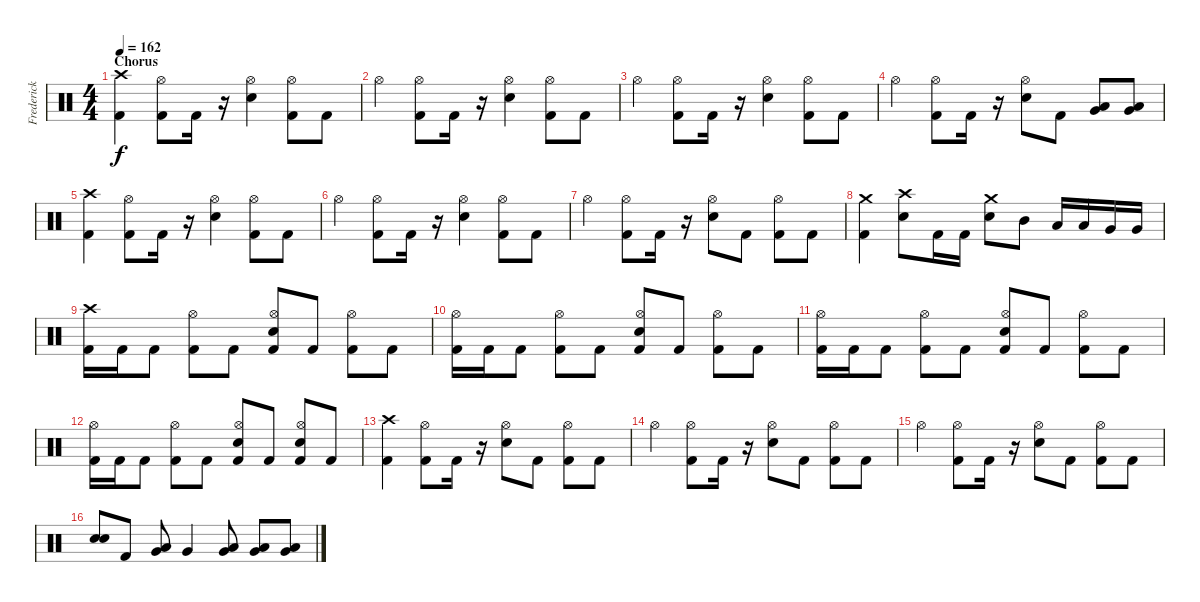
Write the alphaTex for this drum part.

\track ("Frederick Ehmke" "Frederick ") {instrument percussion}
\staff {score}
\articulation defaults
\ts (4 4)
\section ("" "Chorus")
\tempo 162
\clef neutral
\ks c
("Crash high (hit)" "Kick (hit) 2").4{dy f} ("Hi-Hat (open)" "Kick (hit) 2").8 "Kick (hit) 2".16 r.16 ("Electric Snare (hit)" "Hi-Hat (open)").4 ("Hi-Hat (open)" "Kick (hit) 2").8 "Kick (hit) 2".8 |
"Hi-Hat (open)".4 ("Hi-Hat (open)" "Kick (hit) 2").8 "Kick (hit) 2".16 r.16 ("Electric Snare (hit)" "Hi-Hat (open)").4 ("Hi-Hat (open)" "Kick (hit) 2").8 "Kick (hit) 2".8 |
"Hi-Hat (open)".4 ("Hi-Hat (open)" "Kick (hit) 2").8 "Kick (hit) 2".16 r.16 ("Electric Snare (hit)" "Hi-Hat (open)").4 ("Hi-Hat (open)" "Kick (hit) 2").8 "Kick (hit) 2".8 |
"Hi-Hat (open)".4 ("Hi-Hat (open)" "Kick (hit) 2").8 "Kick (hit) 2".16 r.16 ("Electric Snare (hit)" "Hi-Hat (open)").8 "Kick (hit) 2".8 ("Very Low Tom (hit)" "Low Floor Tom (hit)").8 ("Very Low Tom (hit)" "Low Floor Tom (hit)").8 |
("Crash high (hit)" "Kick (hit) 2").4 ("Hi-Hat (open)" "Kick (hit) 2").8 "Kick (hit) 2".16 r.16 ("Electric Snare (hit)" "Hi-Hat (open)").4 ("Hi-Hat (open)" "Kick (hit) 2").8 "Kick (hit) 2".8 |
"Hi-Hat (open)".4 ("Hi-Hat (open)" "Kick (hit) 2").8 "Kick (hit) 2".16 r.16 ("Electric Snare (hit)" "Hi-Hat (open)").4 ("Hi-Hat (open)" "Kick (hit) 2").8 "Kick (hit) 2".8 |
"Hi-Hat (open)".4 ("Hi-Hat (open)" "Kick (hit) 2").8 "Kick (hit) 2".16 r.16 ("Electric Snare (hit)" "Hi-Hat (open)").8 "Kick (hit) 2".8 ("Hi-Hat (open)" "Kick (hit) 2").8 "Kick (hit) 2".8 |
("Crash medium (hit)" "Kick (hit) 2").4 ("Electric Snare (hit)" "Crash high (hit)").8 "Kick (hit) 2".16 "Kick (hit) 2".16 ("Electric Snare (hit)" "Crash medium (hit)").8 "Mid Tom (hit)".8 "Low Tom (hit)".16 "Low Tom (hit)".16 "Very Low Tom (hit)".16 "Very Low Tom (hit)".16 |
("Crash high (hit)" "Kick (hit) 2").16 "Kick (hit) 2".16 "Kick (hit) 2".8 ("Hi-Hat (open)" "Kick (hit) 2").8 "Kick (hit) 2".8 ("Electric Snare (hit)" "Hi-Hat (open)" "Kick (hit) 2").8 "Kick (hit) 2".8 ("Hi-Hat (open)" "Kick (hit) 2").8 "Kick (hit) 2".8 |
("Hi-Hat (open)" "Kick (hit) 2").16 "Kick (hit) 2".16 "Kick (hit) 2".8 ("Hi-Hat (open)" "Kick (hit) 2").8 "Kick (hit) 2".8 ("Electric Snare (hit)" "Hi-Hat (open)" "Kick (hit) 2").8 "Kick (hit) 2".8 ("Hi-Hat (open)" "Kick (hit) 2").8 "Kick (hit) 2".8 |
("Hi-Hat (open)" "Kick (hit) 2").16 "Kick (hit) 2".16 "Kick (hit) 2".8 ("Hi-Hat (open)" "Kick (hit) 2").8 "Kick (hit) 2".8 ("Electric Snare (hit)" "Hi-Hat (open)" "Kick (hit) 2").8 "Kick (hit) 2".8 ("Hi-Hat (open)" "Kick (hit) 2").8 "Kick (hit) 2".8 |
("Hi-Hat (open)" "Kick (hit) 2").16 "Kick (hit) 2".16 "Kick (hit) 2".8 ("Hi-Hat (open)" "Kick (hit) 2").8 "Kick (hit) 2".8 ("Electric Snare (hit)" "Hi-Hat (open)" "Kick (hit) 2").8 "Kick (hit) 2".8 ("Electric Snare (hit)" "Hi-Hat (open)" "Kick (hit) 2").8 "Kick (hit) 2".8 |
("Crash high (hit)" "Kick (hit) 2").4 ("Hi-Hat (open)" "Kick (hit) 2").8 "Kick (hit) 2".16 r.16 ("Electric Snare (hit)" "Hi-Hat (open)").8 "Kick (hit) 2".8 ("Hi-Hat (open)" "Kick (hit) 2").8 "Kick (hit) 2".8 |
"Hi-Hat (open)".4 ("Hi-Hat (open)" "Kick (hit) 2").8 "Kick (hit) 2".16 r.16 ("Electric Snare (hit)" "Hi-Hat (open)").8 "Kick (hit) 2".8 ("Hi-Hat (open)" "Kick (hit) 2").8 "Kick (hit) 2".8 |
"Hi-Hat (open)".4 ("Hi-Hat (open)" "Kick (hit) 2").8 "Kick (hit) 2".16 r.16 ("Electric Snare (hit)" "Hi-Hat (open)").8 "Kick (hit) 2".8 ("Hi-Hat (open)" "Kick (hit) 2").8 "Kick (hit) 2".8 |
("Electric Snare (hit)" "Electric Snare (hit)").8 "Kick (hit) 2".8 ("Very Low Tom (hit)" "Low Tom (hit)").8 "Very Low Tom (hit)".4 ("Very Low Tom (hit)" "Low Tom (hit)").8 ("Very Low Tom (hit)" "Low Tom (hit)").8 ("Very Low Tom (hit)" "Low Tom (hit)").8
